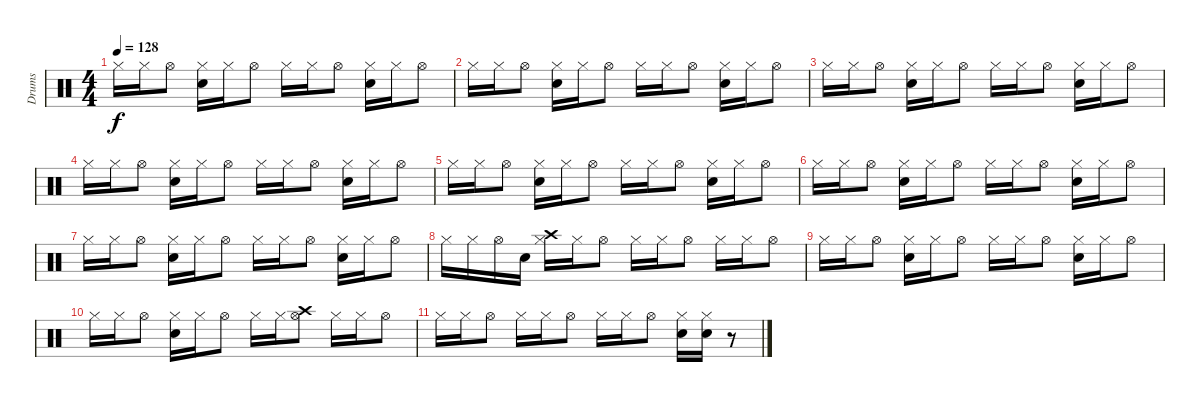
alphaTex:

\track ("Drums" "Drums") {instrument percussion}
\staff {score}
\articulation defaults
\ts (4 4)
\tempo 128
\clef neutral
\ks c "Hi-Hat (closed)".16{dy f} "Hi-Hat (closed)".16 "Hi-Hat (open)".8
("Hi-Hat (closed)" "Electric Snare (hit)").16 "Hi-Hat (closed)".16 "Hi-Hat (open)".8 "Hi-Hat (closed)".16 "Hi-Hat (closed)".16 "Hi-Hat (open)".8 ("Hi-Hat (closed)" "Electric Snare (hit)").16 "Hi-Hat (closed)".16 "Hi-Hat (open)".8 |
"Hi-Hat (closed)".16 "Hi-Hat (closed)".16 "Hi-Hat (open)".8 ("Hi-Hat (closed)" "Electric Snare (hit)").16 "Hi-Hat (closed)".16 "Hi-Hat (open)".8 "Hi-Hat (closed)".16 "Hi-Hat (closed)".16 "Hi-Hat (open)".8 ("Hi-Hat (closed)" "Electric Snare (hit)").16 "Hi-Hat (closed)".16 "Hi-Hat (open)".8 |
"Hi-Hat (closed)".16 "Hi-Hat (closed)".16 "Hi-Hat (open)".8 ("Hi-Hat (closed)" "Electric Snare (hit)").16 "Hi-Hat (closed)".16 "Hi-Hat (open)".8 "Hi-Hat (closed)".16 "Hi-Hat (closed)".16 "Hi-Hat (open)".8 ("Hi-Hat (closed)" "Electric Snare (hit)").16 "Hi-Hat (closed)".16 "Hi-Hat (open)".8 |
"Hi-Hat (closed)".16 "Hi-Hat (closed)".16 "Hi-Hat (open)".8 ("Hi-Hat (closed)" "Electric Snare (hit)").16 "Hi-Hat (closed)".16 "Hi-Hat (open)".8 "Hi-Hat (closed)".16 "Hi-Hat (closed)".16 "Hi-Hat (open)".8 ("Hi-Hat (closed)" "Electric Snare (hit)").16 "Hi-Hat (closed)".16 "Hi-Hat (open)".8 |
"Hi-Hat (closed)".16 "Hi-Hat (closed)".16 "Hi-Hat (open)".8 ("Hi-Hat (closed)" "Electric Snare (hit)").16 "Hi-Hat (closed)".16 "Hi-Hat (open)".8 "Hi-Hat (closed)".16 "Hi-Hat (closed)".16 "Hi-Hat (open)".8 ("Hi-Hat (closed)" "Electric Snare (hit)").16 "Hi-Hat (closed)".16 "Hi-Hat (open)".8 |
"Hi-Hat (closed)".16 "Hi-Hat (closed)".16 "Hi-Hat (open)".8 ("Hi-Hat (closed)" "Electric Snare (hit)").16 "Hi-Hat (closed)".16 "Hi-Hat (open)".8 "Hi-Hat (closed)".16 "Hi-Hat (closed)".16 "Hi-Hat (open)".8 ("Hi-Hat (closed)" "Electric Snare (hit)").16 "Hi-Hat (closed)".16 "Hi-Hat (open)".8 |
"Hi-Hat (closed)".16 "Hi-Hat (closed)".16 "Hi-Hat (open)".8 ("Hi-Hat (closed)" "Electric Snare (hit)").16 "Hi-Hat (closed)".16 "Hi-Hat (open)".8 "Hi-Hat (closed)".16 "Hi-Hat (closed)".16 "Hi-Hat (open)".8 ("Hi-Hat (closed)" "Electric Snare (hit)").16 "Hi-Hat (closed)".16 "Hi-Hat (open)".8 |
"Hi-Hat (closed)".16 "Hi-Hat (closed)".16 "Hi-Hat (open)".16 "Electric Snare (hit)".16 ("Crash high (hit)" "Hi-Hat (closed)").16 "Hi-Hat (closed)".16 "Hi-Hat (open)".8 "Hi-Hat (closed)".16 "Hi-Hat (closed)".16 "Hi-Hat (open)".8 "Hi-Hat (closed)".16 "Hi-Hat (closed)".16 "Hi-Hat (open)".8 |
"Hi-Hat (closed)".16 "Hi-Hat (closed)".16 "Hi-Hat (open)".8 ("Hi-Hat (closed)" "Electric Snare (hit)").16 "Hi-Hat (closed)".16 "Hi-Hat (open)".8 "Hi-Hat (closed)".16 "Hi-Hat (closed)".16 "Hi-Hat (open)".8 ("Hi-Hat (closed)" "Electric Snare (hit)").16 "Hi-Hat (closed)".16 "Hi-Hat (open)".8 |
"Hi-Hat (closed)".16 "Hi-Hat (closed)".16 "Hi-Hat (open)".8 ("Hi-Hat (closed)" "Electric Snare (hit)").16 "Hi-Hat (closed)".16 "Hi-Hat (open)".8 "Hi-Hat (closed)".16 "Hi-Hat (closed)".16 ("Crash high (hit)" "Hi-Hat (open)").8 "Hi-Hat (closed)".16 "Hi-Hat (closed)".16 "Hi-Hat (open)".8 |
"Hi-Hat (closed)".16 "Hi-Hat (closed)".16 "Hi-Hat (open)".8 "Hi-Hat (closed)".16 "Hi-Hat (closed)".16 "Hi-Hat (open)".8 "Hi-Hat (closed)".16 "Hi-Hat (closed)".16 "Hi-Hat (open)".8 ("Hi-Hat (closed)" "Electric Snare (hit)").16 ("Hi-Hat (closed)" "Electric Snare (hit)").16 r.8
